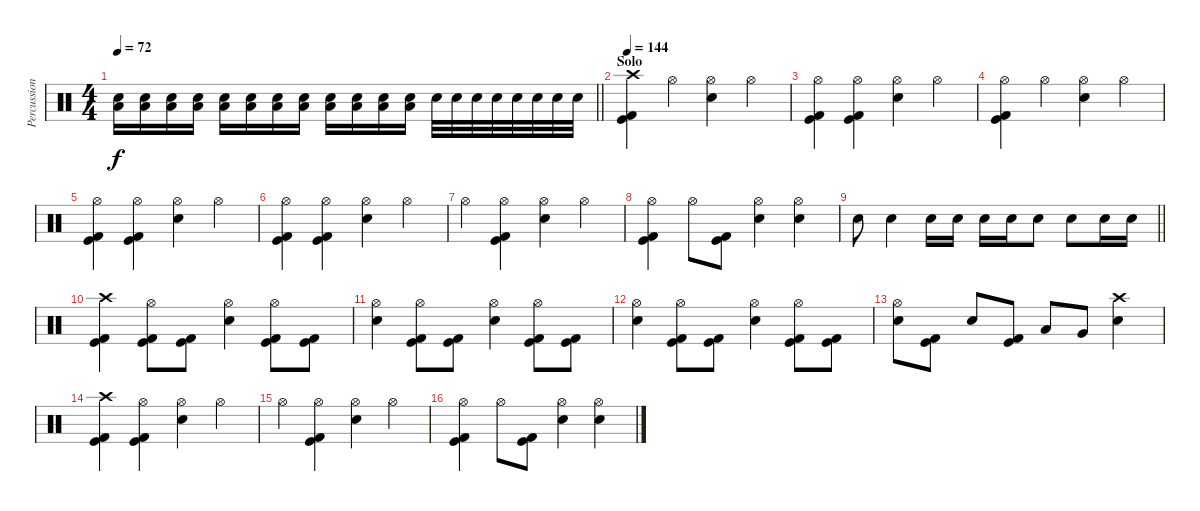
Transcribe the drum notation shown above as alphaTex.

\track ("Percussion" "Percussion") {instrument percussion}
\staff {score}
\articulation defaults
\ts (4 4)
\tempo 72
\clef neutral
\barLineRight lightlight
\ks c
("Electric Snare (hit)" "Low Floor Tom (hit)").16{dy f} ("Electric Snare (hit)" "Low Floor Tom (hit)").16 ("Electric Snare (hit)" "Low Floor Tom (hit)").16 ("Electric Snare (hit)" "Low Floor Tom (hit)").16 ("Electric Snare (hit)" "Low Floor Tom (hit)").16 ("Electric Snare (hit)" "Low Floor Tom (hit)").16 ("Electric Snare (hit)" "Low Floor Tom (hit)").16 ("Electric Snare (hit)" "Low Floor Tom (hit)").16 ("Electric Snare (hit)" "Low Floor Tom (hit)").16 ("Electric Snare (hit)" "Low Floor Tom (hit)").16 ("Electric Snare (hit)" "Low Floor Tom (hit)").16 ("Electric Snare (hit)" "Low Floor Tom (hit)").16 "Electric Snare (hit)".32 "Electric Snare (hit)".32 "Electric Snare (hit)".32 "Electric Snare (hit)".32 "Electric Snare (hit)".32 "Electric Snare (hit)".32 "Electric Snare (hit)".32 "Electric Snare (hit)".32 |
\section ("" "Solo")
\tempo 144
("Crash high (hit)" "Kick (hit)" "Kick (hit) 2").4 "Hi-Hat (open)".4 ("Hi-Hat (open)" "Electric Snare (hit)").4 "Hi-Hat (open)".4 |
("Hi-Hat (open)" "Kick (hit)" "Kick (hit) 2").4 ("Hi-Hat (open)" "Kick (hit)" "Kick (hit) 2").4 ("Hi-Hat (open)" "Electric Snare (hit)").4 "Hi-Hat (open)".4 |
("Hi-Hat (open)" "Kick (hit)" "Kick (hit) 2").4 "Hi-Hat (open)".4 ("Hi-Hat (open)" "Electric Snare (hit)").4 "Hi-Hat (open)".4 |
("Hi-Hat (open)" "Kick (hit)" "Kick (hit) 2").4 ("Hi-Hat (open)" "Kick (hit)" "Kick (hit) 2").4 ("Hi-Hat (open)" "Electric Snare (hit)").4 "Hi-Hat (open)".4 |
("Hi-Hat (open)" "Kick (hit)" "Kick (hit) 2").4 ("Hi-Hat (open)" "Kick (hit)" "Kick (hit) 2").4 ("Hi-Hat (open)" "Electric Snare (hit)").4 "Hi-Hat (open)".4 |
"Hi-Hat (open)".4 ("Hi-Hat (open)" "Kick (hit)" "Kick (hit) 2").4 ("Hi-Hat (open)" "Electric Snare (hit)").4 "Hi-Hat (open)".4 |
("Hi-Hat (open)" "Kick (hit)" "Kick (hit) 2").4 "Hi-Hat (open)".8 ("Kick (hit)" "Kick (hit) 2").8 ("Hi-Hat (open)" "Electric Snare (hit)").4 ("Hi-Hat (open)" "Electric Snare (hit)").4 |
\barLineRight lightlight "Electric Snare (hit)".8 "Electric Snare (hit)".4 "Electric Snare (hit)".16 "Electric Snare (hit)".16 "Electric Snare (hit)".16 "Electric Snare (hit)".16 "Electric Snare (hit)".8 "Electric Snare (hit)".8 "Electric Snare (hit)".16 "Electric Snare (hit)".16
|
\section ("" "")
("Crash high (hit)" "Kick (hit)" "Kick (hit) 2").4 ("Hi-Hat (open)" "Kick (hit)" "Kick (hit) 2").8 ("Kick (hit)" "Kick (hit) 2").8 ("Hi-Hat (open)" "Electric Snare (hit)").4 ("Hi-Hat (open)" "Kick (hit)" "Kick (hit) 2").8 ("Kick (hit)" "Kick (hit) 2").8 |
("Hi-Hat (open)" "Electric Snare (hit)").4 ("Hi-Hat (open)" "Kick (hit)" "Kick (hit) 2").8 ("Kick (hit)" "Kick (hit) 2").8 ("Hi-Hat (open)" "Electric Snare (hit)").4 ("Hi-Hat (open)" "Kick (hit)" "Kick (hit) 2").8 ("Kick (hit)" "Kick (hit) 2").8 |
("Hi-Hat (open)" "Electric Snare (hit)").4 ("Hi-Hat (open)" "Kick (hit)" "Kick (hit) 2").8 ("Kick (hit)" "Kick (hit) 2").8 ("Hi-Hat (open)" "Electric Snare (hit)").4 ("Hi-Hat (open)" "Kick (hit)" "Kick (hit) 2").8 ("Kick (hit)" "Kick (hit) 2").8 |
("Hi-Hat (open)" "Electric Snare (hit)").8 ("Kick (hit)" "Kick (hit) 2").8 "Electric Snare (hit)".8 ("Kick (hit)" "Kick (hit) 2").8 "Low Tom (hit)".8 "Very Low Tom (hit)".8 ("Crash high (hit)" "Electric Snare (hit)").4 |
("Crash high (hit)" "Kick (hit)" "Kick (hit) 2").4 ("Hi-Hat (open)" "Kick (hit)" "Kick (hit) 2").4 ("Hi-Hat (open)" "Electric Snare (hit)").4 "Hi-Hat (open)".4 |
"Hi-Hat (open)".4 ("Hi-Hat (open)" "Kick (hit)" "Kick (hit) 2").4 ("Hi-Hat (open)" "Electric Snare (hit)").4 "Hi-Hat (open)".4 |
("Hi-Hat (open)" "Kick (hit)" "Kick (hit) 2").4 "Hi-Hat (open)".8 ("Kick (hit)" "Kick (hit) 2").8 ("Hi-Hat (open)" "Electric Snare (hit)").4 ("Hi-Hat (open)" "Electric Snare (hit)").4
